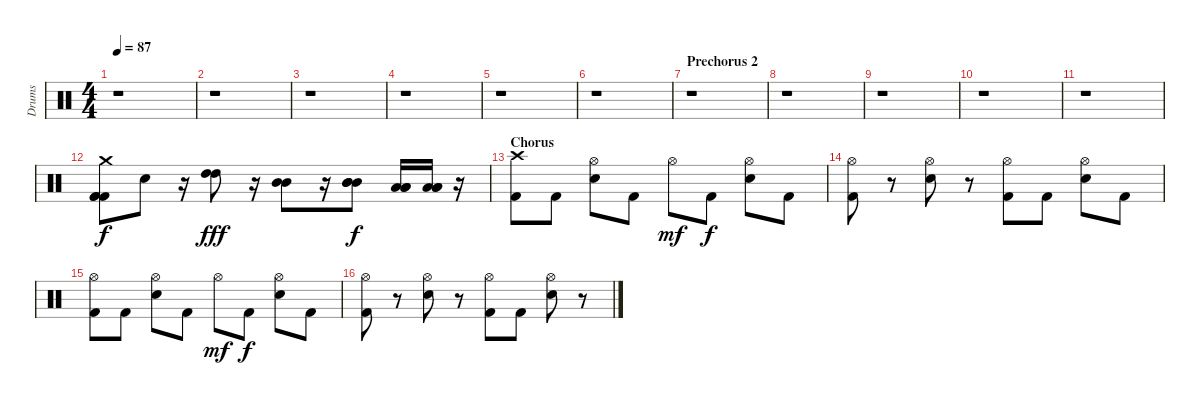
\track ("Drums" "Drums") {instrument percussion}
\staff {score}
\articulation defaults
\ts (4 4)
\tempo 87
\clef neutral
\ks c
r.1{dy f} |
r.1 |
r.1 |
r.1 |
r.1 |
r.1 |
\section ("" "Prechorus 2")
r.1 |
r.1 |
r.1 |
r.1 |
r.1 |
("Crash medium (hit)" "Kick (hit) 2" "Kick (hit) 2" "Kick (hit) 2").8 "Snare (hit) 2".8 r.16 ("High Tom (hit)" "High Tom (hit)").8{bd 120 dy fff} r.16 ("Mid Tom (hit)" "Mid Tom (hit)").8{bd 120} r.16 ("Mid Tom (hit)" "Mid Tom (hit)" "Mid Tom (hit)").8{dy f} ("Low Tom (hit)" "Low Tom (hit)" "Low Tom (hit)").16 ("Low Tom (hit)" "Low Tom (hit)" "Low Tom (hit)").16 r.16 |
\section ("" "Chorus")
("Crash high (hit)" "Kick (hit) 2").8 "Kick (hit) 2".8 ("Hi-Hat (open)" "Snare (hit) 2").8 "Kick (hit) 2".8 "Hi-Hat (open)".8{dy mf} "Kick (hit) 2".8{dy f} ("Hi-Hat (open)" "Snare (hit) 2").8 "Kick (hit) 2".8 |
("Hi-Hat (open)" "Kick (hit) 2").8 r.8 ("Hi-Hat (open)" "Snare (hit) 2").8 r.8 ("Hi-Hat (open)" "Kick (hit) 2").8 "Kick (hit) 2".8 ("Hi-Hat (open)" "Snare (hit) 2").8 "Kick (hit) 2".8 |
("Hi-Hat (open)" "Kick (hit) 2").8 "Kick (hit) 2".8 ("Hi-Hat (open)" "Snare (hit) 2").8 "Kick (hit) 2".8 "Hi-Hat (open)".8{dy mf} "Kick (hit) 2".8{dy f} ("Hi-Hat (open)" "Snare (hit) 2").8 "Kick (hit) 2".8 |
("Hi-Hat (open)" "Kick (hit) 2").8 r.8 ("Hi-Hat (open)" "Snare (hit) 2").8 r.8 ("Hi-Hat (open)" "Kick (hit) 2").8 "Kick (hit) 2".8 ("Hi-Hat (open)" "Snare (hit) 2").8 r.8
